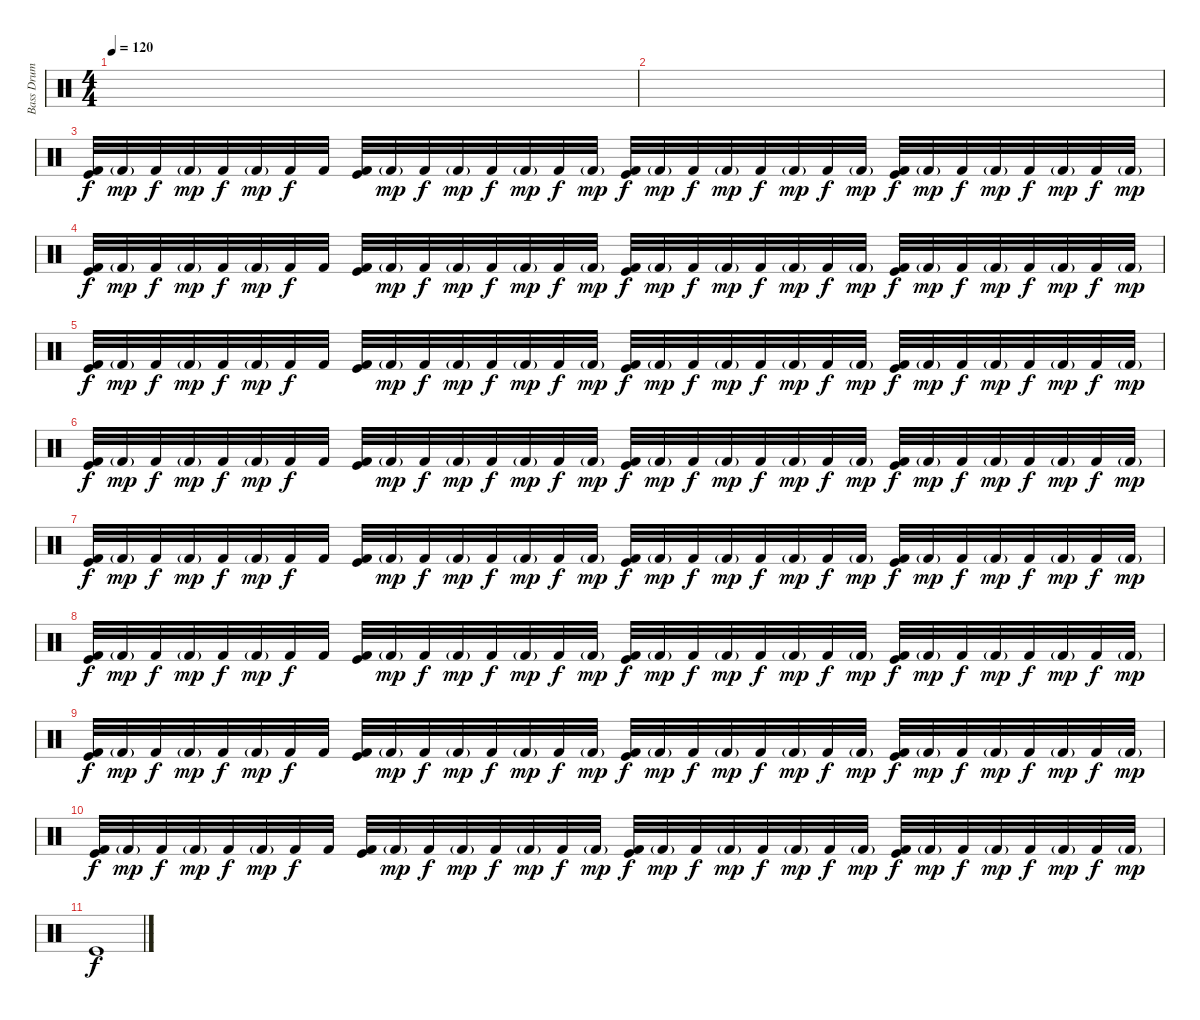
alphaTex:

\track ("Bass Drum Hyper Turbo Efect - Szpalsen" "Bass Drum ") {instrument percussion}
\staff {score}
\articulation defaults
\ts (4 4)
\tempo 120
\clef neutral
\ks c
|
|
("Kick (hit) 2" "Kick (hit)").32 "Kick (hit) 2"{g}.32{dy mp} "Kick (hit) 2".32{dy f} "Kick (hit) 2"{g}.32{dy mp} "Kick (hit) 2".32{dy f} "Kick (hit) 2"{g}.32{dy mp} "Kick (hit) 2".32{dy f} "Kick (hit) 2".32 ("Kick (hit) 2" "Kick (hit)").32 "Kick (hit) 2"{g}.32{dy mp} "Kick (hit) 2".32{dy f} "Kick (hit) 2"{g}.32{dy mp} "Kick (hit) 2".32{dy f} "Kick (hit) 2"{g}.32{dy mp} "Kick (hit) 2".32{dy f} "Kick (hit) 2"{g}.32{dy mp} ("Kick (hit) 2" "Kick (hit)").32{dy f} "Kick (hit) 2"{g}.32{dy mp} "Kick (hit) 2".32{dy f} "Kick (hit) 2"{g}.32{dy mp} "Kick (hit) 2".32{dy f} "Kick (hit) 2"{g}.32{dy mp} "Kick (hit) 2".32{dy f} "Kick (hit) 2"{g}.32{dy mp} ("Kick (hit) 2" "Kick (hit)").32{dy f} "Kick (hit) 2"{g}.32{dy mp} "Kick (hit) 2".32{dy f} "Kick (hit) 2"{g}.32{dy mp} "Kick (hit) 2".32{dy f} "Kick (hit) 2"{g}.32{dy mp} "Kick (hit) 2".32{dy f} "Kick (hit) 2"{g}.32{dy mp} |
("Kick (hit) 2" "Kick (hit)").32{dy f} "Kick (hit) 2"{g}.32{dy mp} "Kick (hit) 2".32{dy f} "Kick (hit) 2"{g}.32{dy mp} "Kick (hit) 2".32{dy f} "Kick (hit) 2"{g}.32{dy mp} "Kick (hit) 2".32{dy f} "Kick (hit) 2".32 ("Kick (hit) 2" "Kick (hit)").32 "Kick (hit) 2"{g}.32{dy mp} "Kick (hit) 2".32{dy f} "Kick (hit) 2"{g}.32{dy mp} "Kick (hit) 2".32{dy f} "Kick (hit) 2"{g}.32{dy mp} "Kick (hit) 2".32{dy f} "Kick (hit) 2"{g}.32{dy mp} ("Kick (hit) 2" "Kick (hit)").32{dy f} "Kick (hit) 2"{g}.32{dy mp} "Kick (hit) 2".32{dy f} "Kick (hit) 2"{g}.32{dy mp} "Kick (hit) 2".32{dy f} "Kick (hit) 2"{g}.32{dy mp} "Kick (hit) 2".32{dy f} "Kick (hit) 2"{g}.32{dy mp} ("Kick (hit) 2" "Kick (hit)").32{dy f} "Kick (hit) 2"{g}.32{dy mp} "Kick (hit) 2".32{dy f} "Kick (hit) 2"{g}.32{dy mp} "Kick (hit) 2".32{dy f} "Kick (hit) 2"{g}.32{dy mp} "Kick (hit) 2".32{dy f} "Kick (hit) 2"{g}.32{dy mp} |
("Kick (hit) 2" "Kick (hit)").32{dy f} "Kick (hit) 2"{g}.32{dy mp} "Kick (hit) 2".32{dy f} "Kick (hit) 2"{g}.32{dy mp} "Kick (hit) 2".32{dy f} "Kick (hit) 2"{g}.32{dy mp} "Kick (hit) 2".32{dy f} "Kick (hit) 2".32 ("Kick (hit) 2" "Kick (hit)").32 "Kick (hit) 2"{g}.32{dy mp} "Kick (hit) 2".32{dy f} "Kick (hit) 2"{g}.32{dy mp} "Kick (hit) 2".32{dy f} "Kick (hit) 2"{g}.32{dy mp} "Kick (hit) 2".32{dy f} "Kick (hit) 2"{g}.32{dy mp} ("Kick (hit) 2" "Kick (hit)").32{dy f} "Kick (hit) 2"{g}.32{dy mp} "Kick (hit) 2".32{dy f} "Kick (hit) 2"{g}.32{dy mp} "Kick (hit) 2".32{dy f} "Kick (hit) 2"{g}.32{dy mp} "Kick (hit) 2".32{dy f} "Kick (hit) 2"{g}.32{dy mp} ("Kick (hit) 2" "Kick (hit)").32{dy f} "Kick (hit) 2"{g}.32{dy mp} "Kick (hit) 2".32{dy f} "Kick (hit) 2"{g}.32{dy mp} "Kick (hit) 2".32{dy f} "Kick (hit) 2"{g}.32{dy mp} "Kick (hit) 2".32{dy f} "Kick (hit) 2"{g}.32{dy mp} |
("Kick (hit) 2" "Kick (hit)").32{dy f} "Kick (hit) 2"{g}.32{dy mp} "Kick (hit) 2".32{dy f} "Kick (hit) 2"{g}.32{dy mp} "Kick (hit) 2".32{dy f} "Kick (hit) 2"{g}.32{dy mp} "Kick (hit) 2".32{dy f} "Kick (hit) 2".32 ("Kick (hit) 2" "Kick (hit)").32 "Kick (hit) 2"{g}.32{dy mp} "Kick (hit) 2".32{dy f} "Kick (hit) 2"{g}.32{dy mp} "Kick (hit) 2".32{dy f} "Kick (hit) 2"{g}.32{dy mp} "Kick (hit) 2".32{dy f} "Kick (hit) 2"{g}.32{dy mp} ("Kick (hit) 2" "Kick (hit)").32{dy f} "Kick (hit) 2"{g}.32{dy mp} "Kick (hit) 2".32{dy f} "Kick (hit) 2"{g}.32{dy mp} "Kick (hit) 2".32{dy f} "Kick (hit) 2"{g}.32{dy mp} "Kick (hit) 2".32{dy f} "Kick (hit) 2"{g}.32{dy mp} ("Kick (hit) 2" "Kick (hit)").32{dy f} "Kick (hit) 2"{g}.32{dy mp} "Kick (hit) 2".32{dy f} "Kick (hit) 2"{g}.32{dy mp} "Kick (hit) 2".32{dy f} "Kick (hit) 2"{g}.32{dy mp} "Kick (hit) 2".32{dy f} "Kick (hit) 2"{g}.32{dy mp} |
("Kick (hit) 2" "Kick (hit)").32{dy f} "Kick (hit) 2"{g}.32{dy mp} "Kick (hit) 2".32{dy f} "Kick (hit) 2"{g}.32{dy mp} "Kick (hit) 2".32{dy f} "Kick (hit) 2"{g}.32{dy mp} "Kick (hit) 2".32{dy f} "Kick (hit) 2".32 ("Kick (hit) 2" "Kick (hit)").32 "Kick (hit) 2"{g}.32{dy mp} "Kick (hit) 2".32{dy f} "Kick (hit) 2"{g}.32{dy mp} "Kick (hit) 2".32{dy f} "Kick (hit) 2"{g}.32{dy mp} "Kick (hit) 2".32{dy f} "Kick (hit) 2"{g}.32{dy mp} ("Kick (hit) 2" "Kick (hit)").32{dy f} "Kick (hit) 2"{g}.32{dy mp} "Kick (hit) 2".32{dy f} "Kick (hit) 2"{g}.32{dy mp} "Kick (hit) 2".32{dy f} "Kick (hit) 2"{g}.32{dy mp} "Kick (hit) 2".32{dy f} "Kick (hit) 2"{g}.32{dy mp} ("Kick (hit) 2" "Kick (hit)").32{dy f} "Kick (hit) 2"{g}.32{dy mp} "Kick (hit) 2".32{dy f} "Kick (hit) 2"{g}.32{dy mp} "Kick (hit) 2".32{dy f} "Kick (hit) 2"{g}.32{dy mp} "Kick (hit) 2".32{dy f} "Kick (hit) 2"{g}.32{dy mp} |
("Kick (hit) 2" "Kick (hit)").32{dy f} "Kick (hit) 2"{g}.32{dy mp} "Kick (hit) 2".32{dy f} "Kick (hit) 2"{g}.32{dy mp} "Kick (hit) 2".32{dy f} "Kick (hit) 2"{g}.32{dy mp} "Kick (hit) 2".32{dy f} "Kick (hit) 2".32 ("Kick (hit) 2" "Kick (hit)").32 "Kick (hit) 2"{g}.32{dy mp} "Kick (hit) 2".32{dy f} "Kick (hit) 2"{g}.32{dy mp} "Kick (hit) 2".32{dy f} "Kick (hit) 2"{g}.32{dy mp} "Kick (hit) 2".32{dy f} "Kick (hit) 2"{g}.32{dy mp} ("Kick (hit) 2" "Kick (hit)").32{dy f} "Kick (hit) 2"{g}.32{dy mp} "Kick (hit) 2".32{dy f} "Kick (hit) 2"{g}.32{dy mp} "Kick (hit) 2".32{dy f} "Kick (hit) 2"{g}.32{dy mp} "Kick (hit) 2".32{dy f} "Kick (hit) 2"{g}.32{dy mp} ("Kick (hit) 2" "Kick (hit)").32{dy f} "Kick (hit) 2"{g}.32{dy mp} "Kick (hit) 2".32{dy f} "Kick (hit) 2"{g}.32{dy mp} "Kick (hit) 2".32{dy f} "Kick (hit) 2"{g}.32{dy mp} "Kick (hit) 2".32{dy f} "Kick (hit) 2"{g}.32{dy mp} |
("Kick (hit) 2" "Kick (hit)").32{dy f} "Kick (hit) 2"{g}.32{dy mp} "Kick (hit) 2".32{dy f} "Kick (hit) 2"{g}.32{dy mp} "Kick (hit) 2".32{dy f} "Kick (hit) 2"{g}.32{dy mp} "Kick (hit) 2".32{dy f} "Kick (hit) 2".32 ("Kick (hit) 2" "Kick (hit)").32 "Kick (hit) 2"{g}.32{dy mp} "Kick (hit) 2".32{dy f} "Kick (hit) 2"{g}.32{dy mp} "Kick (hit) 2".32{dy f} "Kick (hit) 2"{g}.32{dy mp} "Kick (hit) 2".32{dy f} "Kick (hit) 2"{g}.32{dy mp} ("Kick (hit) 2" "Kick (hit)").32{dy f} "Kick (hit) 2"{g}.32{dy mp} "Kick (hit) 2".32{dy f} "Kick (hit) 2"{g}.32{dy mp} "Kick (hit) 2".32{dy f} "Kick (hit) 2"{g}.32{dy mp} "Kick (hit) 2".32{dy f} "Kick (hit) 2"{g}.32{dy mp} ("Kick (hit) 2" "Kick (hit)").32{dy f} "Kick (hit) 2"{g}.32{dy mp} "Kick (hit) 2".32{dy f} "Kick (hit) 2"{g}.32{dy mp} "Kick (hit) 2".32{dy f} "Kick (hit) 2"{g}.32{dy mp} "Kick (hit) 2".32{dy f} "Kick (hit) 2"{g}.32{dy mp} |
("Kick (hit) 2" "Kick (hit)").32{dy f} "Kick (hit) 2"{g}.32{dy mp} "Kick (hit) 2".32{dy f} "Kick (hit) 2"{g}.32{dy mp} "Kick (hit) 2".32{dy f} "Kick (hit) 2"{g}.32{dy mp} "Kick (hit) 2".32{dy f} "Kick (hit) 2".32 ("Kick (hit) 2" "Kick (hit)").32 "Kick (hit) 2"{g}.32{dy mp} "Kick (hit) 2".32{dy f} "Kick (hit) 2"{g}.32{dy mp} "Kick (hit) 2".32{dy f} "Kick (hit) 2"{g}.32{dy mp} "Kick (hit) 2".32{dy f} "Kick (hit) 2"{g}.32{dy mp} ("Kick (hit) 2" "Kick (hit)").32{dy f} "Kick (hit) 2"{g}.32{dy mp} "Kick (hit) 2".32{dy f} "Kick (hit) 2"{g}.32{dy mp} "Kick (hit) 2".32{dy f} "Kick (hit) 2"{g}.32{dy mp} "Kick (hit) 2".32{dy f} "Kick (hit) 2"{g}.32{dy mp} ("Kick (hit) 2" "Kick (hit)").32{dy f} "Kick (hit) 2"{g}.32{dy mp} "Kick (hit) 2".32{dy f} "Kick (hit) 2"{g}.32{dy mp} "Kick (hit) 2".32{dy f} "Kick (hit) 2"{g}.32{dy mp} "Kick (hit) 2".32{dy f} "Kick (hit) 2"{g}.32{dy mp} |
"Kick (hit)".1{dy f}
